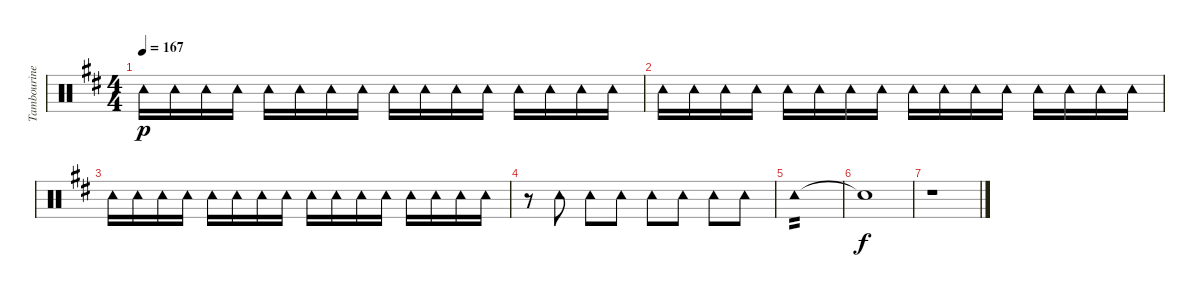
\track ("Tambourine" "Tambourine") {instrument percussion}
\staff {score}
\articulation defaults
\ts (4 4)
\tempo 167
\clef neutral
\ks d "Tambourine (hit)".16{dy p} "Tambourine (hit)".16 "Tambourine (hit)".16 "Tambourine (hit)".16 "Tambourine (hit)".16 "Tambourine (hit)".16 "Tambourine (hit)".16 "Tambourine (hit)".16 "Tambourine (hit)".16 "Tambourine (hit)".16 "Tambourine (hit)".16 "Tambourine (hit)".16 "Tambourine (hit)".16 "Tambourine (hit)".16 "Tambourine (hit)".16 "Tambourine (hit)".16
|
"Tambourine (hit)".16 "Tambourine (hit)".16 "Tambourine (hit)".16 "Tambourine (hit)".16 "Tambourine (hit)".16 "Tambourine (hit)".16 "Tambourine (hit)".16 "Tambourine (hit)".16 "Tambourine (hit)".16 "Tambourine (hit)".16 "Tambourine (hit)".16 "Tambourine (hit)".16 "Tambourine (hit)".16 "Tambourine (hit)".16 "Tambourine (hit)".16 "Tambourine (hit)".16 |
"Tambourine (hit)".16 "Tambourine (hit)".16 "Tambourine (hit)".16 "Tambourine (hit)".16 "Tambourine (hit)".16 "Tambourine (hit)".16 "Tambourine (hit)".16 "Tambourine (hit)".16 "Tambourine (hit)".16 "Tambourine (hit)".16 "Tambourine (hit)".16 "Tambourine (hit)".16 "Tambourine (hit)".16 "Tambourine (hit)".16 "Tambourine (hit)".16 "Tambourine (hit)".16 |
r.8 "Tambourine (hit)".8 "Tambourine (hit)".8 "Tambourine (hit)".8 "Tambourine (hit)".8 "Tambourine (hit)".8 "Tambourine (hit)".8 "Tambourine (hit)".8 |
"Tambourine (hit)".1{tp 2} |
"Snare (hit)"{t}.1{dy f} |
r.1
